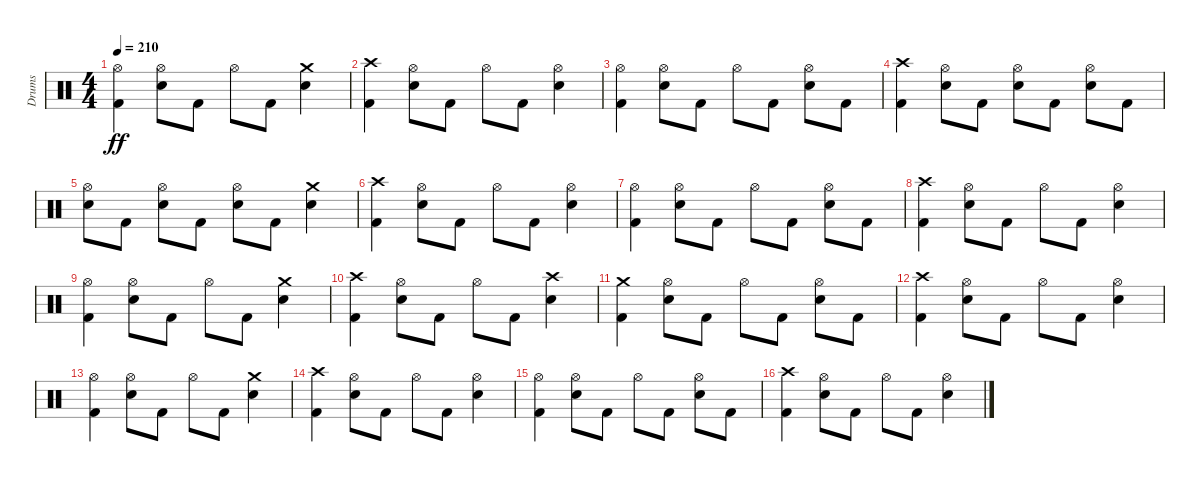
\track ("Drums" "Drums") {instrument percussion}
\staff {score}
\articulation defaults
\ts (4 4)
\tempo 210
\clef neutral
\ks c
("Hi-Hat (open)" "Kick (hit) 2").4{dy ff} ("Hi-Hat (open)" "Electric Snare (hit)").8 "Kick (hit) 2".8 "Hi-Hat (open)".8 "Kick (hit) 2".8 ("Crash medium (hit)" "Electric Snare (hit)").4 |
("Crash high (hit)" "Kick (hit) 2").4 ("Hi-Hat (open)" "Electric Snare (hit)").8 "Kick (hit) 2".8 "Hi-Hat (open)".8 "Kick (hit) 2".8 ("Hi-Hat (open)" "Electric Snare (hit)").4 |
("Hi-Hat (open)" "Kick (hit) 2").4 ("Hi-Hat (open)" "Electric Snare (hit)").8 "Kick (hit) 2".8 "Hi-Hat (open)".8 "Kick (hit) 2".8 ("Hi-Hat (open)" "Electric Snare (hit)").8 "Kick (hit) 2".8 |
("Crash high (hit)" "Kick (hit) 2").4 ("Hi-Hat (open)" "Electric Snare (hit)").8 "Kick (hit) 2".8 ("Hi-Hat (open)" "Electric Snare (hit)").8 "Kick (hit) 2".8 ("Hi-Hat (open)" "Electric Snare (hit)").8 "Kick (hit) 2".8 |
("Hi-Hat (open)" "Electric Snare (hit)").8 "Kick (hit) 2".8 ("Hi-Hat (open)" "Electric Snare (hit)").8 "Kick (hit) 2".8 ("Hi-Hat (open)" "Electric Snare (hit)").8 "Kick (hit) 2".8 ("Crash medium (hit)" "Electric Snare (hit)").4 |
("Crash high (hit)" "Kick (hit) 2").4 ("Hi-Hat (open)" "Electric Snare (hit)").8 "Kick (hit) 2".8 "Hi-Hat (open)".8 "Kick (hit) 2".8 ("Hi-Hat (open)" "Electric Snare (hit)").4 |
("Hi-Hat (open)" "Kick (hit) 2").4 ("Hi-Hat (open)" "Electric Snare (hit)").8 "Kick (hit) 2".8 "Hi-Hat (open)".8 "Kick (hit) 2".8 ("Hi-Hat (open)" "Electric Snare (hit)").8 "Kick (hit) 2".8 |
("Crash high (hit)" "Kick (hit) 2").4 ("Hi-Hat (open)" "Electric Snare (hit)").8 "Kick (hit) 2".8 "Hi-Hat (open)".8 "Kick (hit) 2".8 ("Hi-Hat (open)" "Electric Snare (hit)").4 |
("Hi-Hat (open)" "Kick (hit) 2").4 ("Hi-Hat (open)" "Electric Snare (hit)").8 "Kick (hit) 2".8 "Hi-Hat (open)".8 "Kick (hit) 2".8 ("Crash medium (hit)" "Electric Snare (hit)").4 |
("Crash high (hit)" "Kick (hit) 2").4 ("Hi-Hat (open)" "Electric Snare (hit)").8 "Kick (hit) 2".8 "Hi-Hat (open)".8 "Kick (hit) 2".8 ("Crash high (hit)" "Electric Snare (hit)").4 |
("Crash medium (hit)" "Kick (hit) 2").4 ("Hi-Hat (open)" "Electric Snare (hit)").8 "Kick (hit) 2".8 "Hi-Hat (open)".8 "Kick (hit) 2".8 ("Hi-Hat (open)" "Electric Snare (hit)").8 "Kick (hit) 2".8 |
("Crash high (hit)" "Kick (hit) 2").4 ("Hi-Hat (open)" "Electric Snare (hit)").8 "Kick (hit) 2".8 "Hi-Hat (open)".8 "Kick (hit) 2".8 ("Hi-Hat (open)" "Electric Snare (hit)").4 |
("Hi-Hat (open)" "Kick (hit) 2").4 ("Hi-Hat (open)" "Electric Snare (hit)").8 "Kick (hit) 2".8 "Hi-Hat (open)".8 "Kick (hit) 2".8 ("Crash medium (hit)" "Electric Snare (hit)").4 |
("Crash high (hit)" "Kick (hit) 2").4 ("Hi-Hat (open)" "Electric Snare (hit)").8 "Kick (hit) 2".8 "Hi-Hat (open)".8 "Kick (hit) 2".8 ("Hi-Hat (open)" "Electric Snare (hit)").4 |
("Hi-Hat (open)" "Kick (hit) 2").4 ("Hi-Hat (open)" "Electric Snare (hit)").8 "Kick (hit) 2".8 "Hi-Hat (open)".8 "Kick (hit) 2".8 ("Hi-Hat (open)" "Electric Snare (hit)").8 "Kick (hit) 2".8 |
("Crash high (hit)" "Kick (hit) 2").4 ("Hi-Hat (open)" "Electric Snare (hit)").8 "Kick (hit) 2".8 "Hi-Hat (open)".8 "Kick (hit) 2".8 ("Hi-Hat (open)" "Electric Snare (hit)").4
